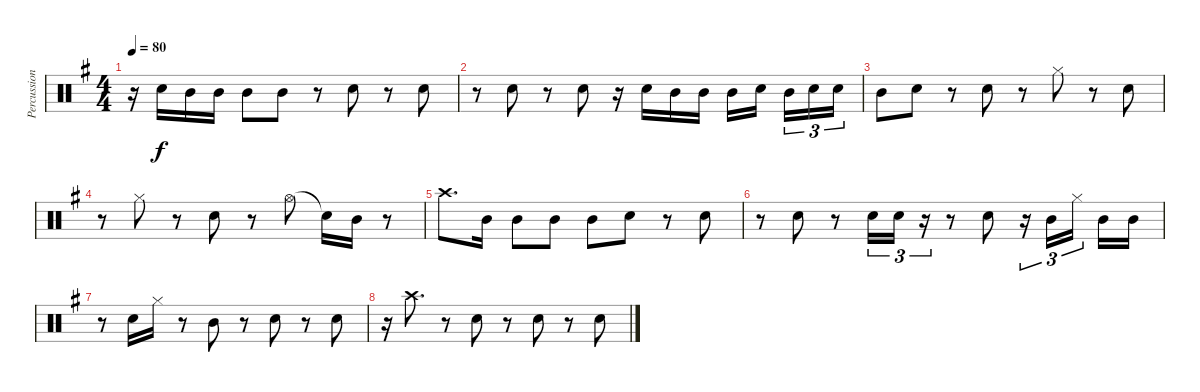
\track ("Percussion" "Percussion") {instrument percussion}
\staff {score}
\articulation defaults
\ts (4 4)
\tempo 80
\clef neutral
\ks g
r.16{dy f} "Snare (hit) 2".16 "Mid Tom (hit)".16 "Mid Tom (hit)".16 "Mid Tom (hit)".8 "Mid Tom (hit)".8 r.8 "Snare (hit) 2".8 r.8 "Snare (hit) 2".8 |
r.8 "Snare (hit) 2".8 r.8 "Snare (hit) 2".8 r.16 "Snare (hit) 2".16 "Mid Tom (hit)".16 "Mid Tom (hit)".16 "Mid Tom (hit)".16 "Snare (hit) 2".16{beam splitsecondary} "Mid Tom (hit)".16{tu (3 2)} "Snare (hit) 2".16{tu (3 2)} "Snare (hit) 2".16{tu (3 2)} |
"Mid Tom (hit)".8 "Snare (hit) 2".8 r.8 "Snare (hit) 2".8 r.8 "Hi-Hat (closed)".8 r.8 "Snare (hit) 2".8 |
r.8 "Hi-Hat (closed)".8 r.8 "Snare (hit) 2".8 r.8 "Hi-Hat (open)".8 "Snare (hit)"{t}.16 "Mid Tom (hit)".16 r.8 |
"Crash high (hit)".8{d} "Mid Tom (hit)".16 "Mid Tom (hit)".8 "Mid Tom (hit)".8 "Mid Tom (hit)".8 "Snare (hit) 2".8 r.8 "Snare (hit) 2".8 |
r.8 "Snare (hit) 2".8 r.8 "Snare (hit) 2".16{tu (3 2)} "Snare (hit) 2".16{tu (3 2)} r.16{tu (3 2)} r.8 "Snare (hit) 2".8 r.16{tu (3 2)} "Mid Tom (hit)".16{tu (3 2)} "Hi-Hat (closed)".16{tu (3 2) beam splitsecondary} "Mid Tom (hit)".16 "Mid Tom (hit)".16 |
r.8 "Snare (hit) 2".16 "Hi-Hat (closed)".16 r.8 "Mid Tom (hit)".8 r.8 "Snare (hit) 2".8 r.8 "Snare (hit) 2".8 |
r.16 "Crash high (hit)".8{d} r.8 "Snare (hit) 2".8 r.8 "Snare (hit) 2".8 r.8 "Snare (hit) 2".8
